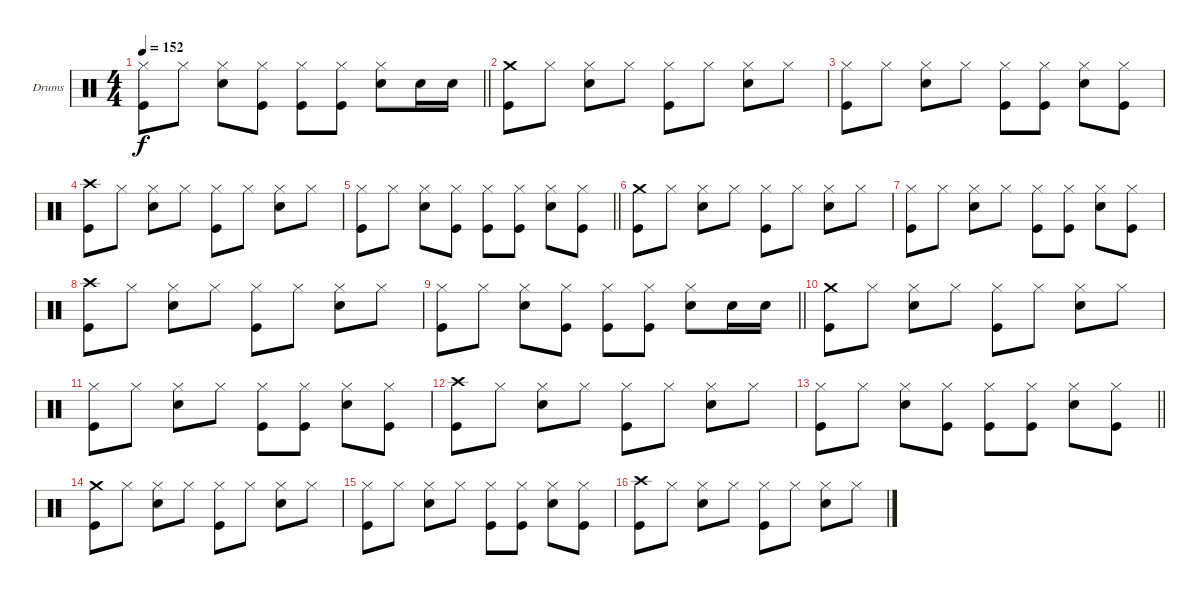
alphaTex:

\bracketExtendMode groupsimilarinstruments
\firstSystemTrackNameOrientation horizontal
\otherSystemsTrackNameOrientation horizontal
\track ("Drumkit" "Drums") {instrument percussion}
\staff {score}
\articulation defaults
\ts (4 4)
\tempo 152
\clef neutral
\barLineRight lightlight
\ks c
("Hi-Hat (closed)" "Kick (hit)").8{dy f} "Hi-Hat (closed)".8 ("Hi-Hat (closed)" "Snare (hit) 2").8 ("Hi-Hat (closed)" "Kick (hit)").8 ("Hi-Hat (closed)" "Kick (hit)").8 ("Hi-Hat (closed)" "Kick (hit)").8 ("Hi-Hat (closed)" "Snare (hit) 2").8 "Snare (hit) 2".16 "Snare (hit) 2".16 |
("Crash medium (hit)" "Kick (hit)").8 "Hi-Hat (closed)".8 ("Hi-Hat (closed)" "Snare (hit) 2").8 "Hi-Hat (closed)".8 ("Hi-Hat (closed)" "Kick (hit)").8 "Hi-Hat (closed)".8 ("Hi-Hat (closed)" "Snare (hit) 2").8 "Hi-Hat (closed)".8 |
("Hi-Hat (closed)" "Kick (hit)").8 "Hi-Hat (closed)".8 ("Hi-Hat (closed)" "Snare (hit) 2").8 "Hi-Hat (closed)".8 ("Hi-Hat (closed)" "Kick (hit)").8 ("Hi-Hat (closed)" "Kick (hit)").8 ("Hi-Hat (closed)" "Snare (hit) 2").8 ("Hi-Hat (closed)" "Kick (hit)").8 |
("Crash high (hit)" "Kick (hit)").8 "Hi-Hat (closed)".8 ("Hi-Hat (closed)" "Snare (hit) 2").8 "Hi-Hat (closed)".8 ("Hi-Hat (closed)" "Kick (hit)").8 "Hi-Hat (closed)".8 ("Hi-Hat (closed)" "Snare (hit) 2").8 "Hi-Hat (closed)".8 |
\barLineRight lightlight
("Hi-Hat (closed)" "Kick (hit)").8 "Hi-Hat (closed)".8 ("Hi-Hat (closed)" "Snare (hit) 2").8 ("Hi-Hat (closed)" "Kick (hit)").8 ("Hi-Hat (closed)" "Kick (hit)").8 ("Hi-Hat (closed)" "Kick (hit)").8 ("Hi-Hat (closed)" "Snare (hit) 2").8 ("Hi-Hat (closed)" "Kick (hit)").8 |
("Crash medium (hit)" "Kick (hit)").8 "Hi-Hat (closed)".8 ("Hi-Hat (closed)" "Snare (hit) 2").8 "Hi-Hat (closed)".8 ("Hi-Hat (closed)" "Kick (hit)").8 "Hi-Hat (closed)".8 ("Hi-Hat (closed)" "Snare (hit) 2").8 "Hi-Hat (closed)".8 |
("Hi-Hat (closed)" "Kick (hit)").8 "Hi-Hat (closed)".8 ("Hi-Hat (closed)" "Snare (hit) 2").8 "Hi-Hat (closed)".8 ("Hi-Hat (closed)" "Kick (hit)").8 ("Hi-Hat (closed)" "Kick (hit)").8 ("Hi-Hat (closed)" "Snare (hit) 2").8 ("Hi-Hat (closed)" "Kick (hit)").8 |
("Crash high (hit)" "Kick (hit)").8 "Hi-Hat (closed)".8 ("Hi-Hat (closed)" "Snare (hit) 2").8 "Hi-Hat (closed)".8 ("Hi-Hat (closed)" "Kick (hit)").8 "Hi-Hat (closed)".8 ("Hi-Hat (closed)" "Snare (hit) 2").8 "Hi-Hat (closed)".8 |
\barLineRight lightlight
("Hi-Hat (closed)" "Kick (hit)").8 "Hi-Hat (closed)".8 ("Hi-Hat (closed)" "Snare (hit) 2").8 ("Hi-Hat (closed)" "Kick (hit)").8 ("Hi-Hat (closed)" "Kick (hit)").8 ("Hi-Hat (closed)" "Kick (hit)").8 ("Hi-Hat (closed)" "Snare (hit) 2").8 "Snare (hit) 2".16 "Snare (hit) 2".16 |
("Crash medium (hit)" "Kick (hit)").8 "Hi-Hat (closed)".8 ("Hi-Hat (closed)" "Snare (hit) 2").8 "Hi-Hat (closed)".8 ("Hi-Hat (closed)" "Kick (hit)").8 "Hi-Hat (closed)".8 ("Hi-Hat (closed)" "Snare (hit) 2").8 "Hi-Hat (closed)".8 |
("Hi-Hat (closed)" "Kick (hit)").8 "Hi-Hat (closed)".8 ("Hi-Hat (closed)" "Snare (hit) 2").8 "Hi-Hat (closed)".8 ("Hi-Hat (closed)" "Kick (hit)").8 ("Hi-Hat (closed)" "Kick (hit)").8 ("Hi-Hat (closed)" "Snare (hit) 2").8 ("Hi-Hat (closed)" "Kick (hit)").8 |
("Crash high (hit)" "Kick (hit)").8 "Hi-Hat (closed)".8 ("Hi-Hat (closed)" "Snare (hit) 2").8 "Hi-Hat (closed)".8 ("Hi-Hat (closed)" "Kick (hit)").8 "Hi-Hat (closed)".8 ("Hi-Hat (closed)" "Snare (hit) 2").8 "Hi-Hat (closed)".8 |
\barLineRight lightlight
("Hi-Hat (closed)" "Kick (hit)").8 "Hi-Hat (closed)".8 ("Hi-Hat (closed)" "Snare (hit) 2").8 ("Hi-Hat (closed)" "Kick (hit)").8 ("Hi-Hat (closed)" "Kick (hit)").8 ("Hi-Hat (closed)" "Kick (hit)").8 ("Hi-Hat (closed)" "Snare (hit) 2").8 ("Hi-Hat (closed)" "Kick (hit)").8 |
("Crash medium (hit)" "Kick (hit)").8 "Hi-Hat (closed)".8 ("Hi-Hat (closed)" "Snare (hit) 2").8 "Hi-Hat (closed)".8 ("Hi-Hat (closed)" "Kick (hit)").8 "Hi-Hat (closed)".8 ("Hi-Hat (closed)" "Snare (hit) 2").8 "Hi-Hat (closed)".8 |
("Hi-Hat (closed)" "Kick (hit)").8 "Hi-Hat (closed)".8 ("Hi-Hat (closed)" "Snare (hit) 2").8 "Hi-Hat (closed)".8 ("Hi-Hat (closed)" "Kick (hit)").8 ("Hi-Hat (closed)" "Kick (hit)").8 ("Hi-Hat (closed)" "Snare (hit) 2").8 ("Hi-Hat (closed)" "Kick (hit)").8 |
("Crash high (hit)" "Kick (hit)").8 "Hi-Hat (closed)".8 ("Hi-Hat (closed)" "Snare (hit) 2").8 "Hi-Hat (closed)".8 ("Hi-Hat (closed)" "Kick (hit)").8 "Hi-Hat (closed)".8 ("Hi-Hat (closed)" "Snare (hit) 2").8 "Hi-Hat (closed)".8
